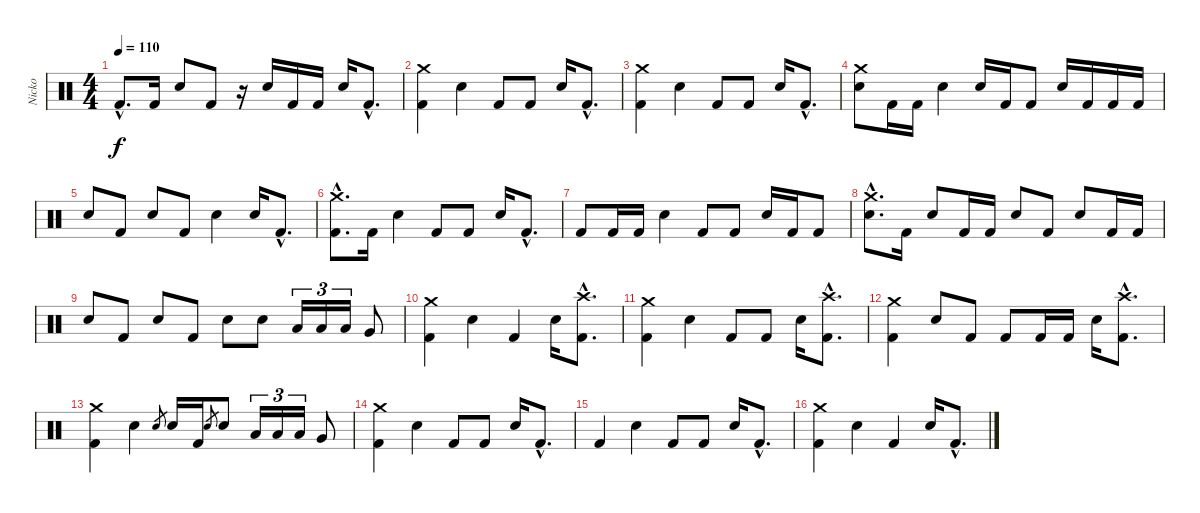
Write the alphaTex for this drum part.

\track ("Nicko" "Nicko") {instrument percussion}
\staff {score}
\articulation defaults
\ts (4 4)
\tempo 110
\clef neutral
\ks c "Kick (hit) 2"{hac}.8{d dy f} "Kick (hit) 2".16 "Electric Snare (hit)".8 "Kick (hit) 2".8
r.16 "Electric Snare (hit)".16 "Kick (hit) 2".16 "Kick (hit) 2".16 "Electric Snare (hit)".16 "Kick (hit) 2"{hac}.8{d} |
("Crash medium (hit)" "Kick (hit) 2").4 "Electric Snare (hit)".4 "Kick (hit) 2".8 "Kick (hit) 2".8 "Electric Snare (hit)".16 "Kick (hit) 2"{hac}.8{d} |
("Crash medium (hit)" "Kick (hit) 2").4 "Electric Snare (hit)".4 "Kick (hit) 2".8 "Kick (hit) 2".8 "Electric Snare (hit)".16 "Kick (hit) 2"{hac}.8{d} |
("Crash medium (hit)" "Electric Snare (hit)").8 "Kick (hit) 2".16 "Kick (hit) 2".16 "Electric Snare (hit)".4 "Electric Snare (hit)".16 "Kick (hit) 2".16 "Kick (hit) 2".8 "Electric Snare (hit)".16 "Kick (hit) 2".16 "Kick (hit) 2".16 "Kick (hit) 2".16 |
"Electric Snare (hit)".8 "Kick (hit) 2".8 "Electric Snare (hit)".8 "Kick (hit) 2".8 "Electric Snare (hit)".4 "Electric Snare (hit)".16 "Kick (hit) 2"{hac}.8{d} |
("Crash medium (hit)"{hac} "Kick (hit) 2"{hac}).8{d} "Kick (hit) 2".16 "Electric Snare (hit)".4 "Kick (hit) 2".8 "Kick (hit) 2".8 "Electric Snare (hit)".16 "Kick (hit) 2"{hac}.8{d} |
"Kick (hit) 2".8 "Kick (hit) 2".16 "Kick (hit) 2".16 "Electric Snare (hit)".4 "Kick (hit) 2".8 "Kick (hit) 2".8 "Electric Snare (hit)".16 "Kick (hit) 2".16 "Kick (hit) 2".8 |
("Crash medium (hit)"{hac} "Electric Snare (hit)"{hac}).8{d} "Kick (hit) 2".16 "Electric Snare (hit)".8 "Kick (hit) 2".16 "Kick (hit) 2".16 "Electric Snare (hit)".8 "Kick (hit) 2".8 "Electric Snare (hit)".8 "Kick (hit) 2".16 "Kick (hit) 2".16 |
"Electric Snare (hit)".8 "Kick (hit) 2".8 "Electric Snare (hit)".8 "Kick (hit) 2".8 "Electric Snare (hit)".8 "Electric Snare (hit)".8 "Low Tom (hit)".16{tu (3 2)} "Low Tom (hit)".16{tu (3 2)} "Low Tom (hit)".16{tu (3 2)} "Very Low Tom (hit)".8 |
("Crash medium (hit)" "Kick (hit) 2").4 "Electric Snare (hit)".4 "Kick (hit) 2".4 "Electric Snare (hit)".16 ("Crash high (hit)"{hac} "Kick (hit) 2"{hac}).8{d} |
("Crash medium (hit)" "Kick (hit) 2").4 "Electric Snare (hit)".4 "Kick (hit) 2".8 "Kick (hit) 2".8 "Electric Snare (hit)".16 ("Crash high (hit)"{hac} "Kick (hit) 2"{hac}).8{d} |
("Crash medium (hit)" "Kick (hit) 2").4 "Electric Snare (hit)".8 "Kick (hit) 2".8 "Kick (hit) 2".8 "Kick (hit) 2".16 "Kick (hit) 2".16 "Electric Snare (hit)".16 ("Crash high (hit)"{hac} "Kick (hit) 2"{hac}).8{d} |
("Crash medium (hit)" "Kick (hit) 2").4 "Electric Snare (hit)".4 "Electric Snare (hit)".8{gr} "Electric Snare (hit)".16 "Kick (hit) 2".16 "Electric Snare (hit)".8{gr} "Electric Snare (hit)".8 "Low Tom (hit)".16{tu (3 2)} "Low Tom (hit)".16{tu (3 2)} "Low Tom (hit)".16{tu (3 2)} "Very Low Tom (hit)".8 |
("Crash medium (hit)" "Kick (hit) 2").4 "Electric Snare (hit)".4 "Kick (hit) 2".8 "Kick (hit) 2".8 "Electric Snare (hit)".16 "Kick (hit) 2"{hac}.8{d} |
"Kick (hit) 2".4 "Electric Snare (hit)".4 "Kick (hit) 2".8 "Kick (hit) 2".8 "Electric Snare (hit)".16 "Kick (hit) 2"{hac}.8{d} |
("Crash medium (hit)" "Kick (hit) 2").4 "Electric Snare (hit)".4 "Kick (hit) 2".4 "Electric Snare (hit)".16 "Kick (hit) 2"{hac}.8{d}
